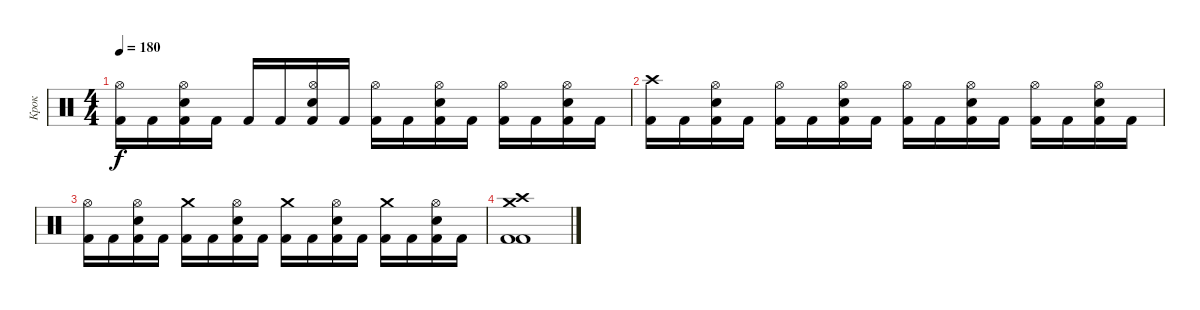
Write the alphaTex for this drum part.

\track ("Крок" "Крок") {instrument percussion}
\staff {score}
\articulation defaults
\ts (4 4)
\tempo 180
\clef neutral
\ks c
("Kick (hit) 2" "Hi-Hat (open)").16{dy f} "Kick (hit) 2".16 ("Kick (hit) 2" "Electric Snare (hit)" "Hi-Hat (open)").16 "Kick (hit) 2".16 "Kick (hit) 2".16 "Kick (hit) 2".16 ("Kick (hit) 2" "Electric Snare (hit)" "Hi-Hat (open)").16 "Kick (hit) 2".16 ("Kick (hit) 2" "Hi-Hat (open)").16 "Kick (hit) 2".16 ("Kick (hit) 2" "Electric Snare (hit)" "Hi-Hat (open)").16 "Kick (hit) 2".16 ("Kick (hit) 2" "Hi-Hat (open)").16 "Kick (hit) 2".16 ("Kick (hit) 2" "Electric Snare (hit)" "Hi-Hat (open)").16 "Kick (hit) 2".16 |
("Kick (hit) 2" "Crash high (hit)").16 "Kick (hit) 2".16 ("Kick (hit) 2" "Electric Snare (hit)" "Hi-Hat (open)").16 "Kick (hit) 2".16 ("Kick (hit) 2" "Hi-Hat (open)").16 "Kick (hit) 2".16 ("Kick (hit) 2" "Electric Snare (hit)" "Hi-Hat (open)").16 "Kick (hit) 2".16 ("Kick (hit) 2" "Hi-Hat (open)").16 "Kick (hit) 2".16 ("Kick (hit) 2" "Electric Snare (hit)" "Hi-Hat (open)").16 "Kick (hit) 2".16 ("Kick (hit) 2" "Hi-Hat (open)").16 "Kick (hit) 2".16 ("Kick (hit) 2" "Electric Snare (hit)" "Hi-Hat (open)").16 "Kick (hit) 2".16 |
("Kick (hit) 2" "Hi-Hat (open)").16 "Kick (hit) 2".16 ("Kick (hit) 2" "Electric Snare (hit)" "Hi-Hat (open)").16 "Kick (hit) 2".16 ("Kick (hit) 2" "Crash medium (hit)").16 "Kick (hit) 2".16 ("Kick (hit) 2" "Electric Snare (hit)" "Hi-Hat (open)").16 "Kick (hit) 2".16 ("Kick (hit) 2" "Crash medium (hit)").16 "Kick (hit) 2".16 ("Kick (hit) 2" "Electric Snare (hit)" "Hi-Hat (open)").16 "Kick (hit) 2".16 ("Kick (hit) 2" "Crash medium (hit)").16 "Kick (hit) 2".16 ("Kick (hit) 2" "Electric Snare (hit)" "Hi-Hat (open)").16 "Kick (hit) 2".16 |
("Kick (hit) 2" "Kick (hit) 2" "Crash high (hit)" "Crash medium (hit)").1
